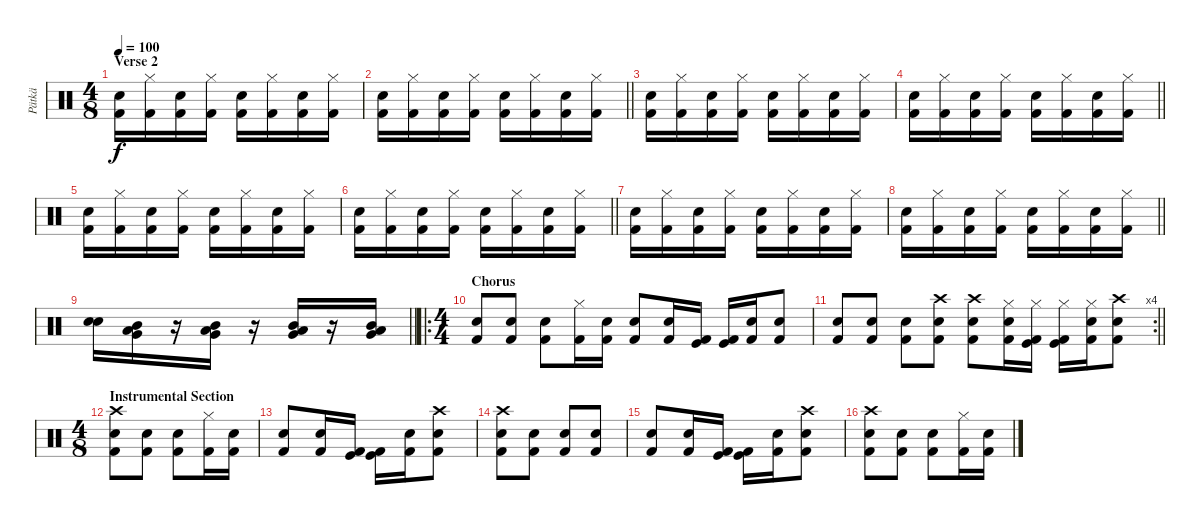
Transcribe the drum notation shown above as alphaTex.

\track ("Pätkä" "Pätkä") {instrument percussion}
\staff {score}
\articulation defaults
\ts (4 8)
\section ("" "Verse 2")
\tempo 100
\clef neutral
\ks c
("Snare (hit) 2" "Kick (hit) 2").16{dy f} ("Hi-Hat (closed)" "Kick (hit) 2").16 ("Snare (hit) 2" "Kick (hit) 2").16 ("Hi-Hat (closed)" "Kick (hit) 2").16 ("Snare (hit) 2" "Kick (hit) 2").16 ("Hi-Hat (closed)" "Kick (hit) 2").16 ("Snare (hit) 2" "Kick (hit) 2").16 ("Hi-Hat (closed)" "Kick (hit) 2").16 |
\barLineRight lightlight
("Snare (hit) 2" "Kick (hit) 2").16 ("Hi-Hat (closed)" "Kick (hit) 2").16 ("Snare (hit) 2" "Kick (hit) 2").16 ("Hi-Hat (closed)" "Kick (hit) 2").16 ("Snare (hit) 2" "Kick (hit) 2").16 ("Hi-Hat (closed)" "Kick (hit) 2").16 ("Snare (hit) 2" "Kick (hit) 2").16 ("Hi-Hat (closed)" "Kick (hit) 2").16 |
("Snare (hit) 2" "Kick (hit) 2").16 ("Hi-Hat (closed)" "Kick (hit) 2").16 ("Snare (hit) 2" "Kick (hit) 2").16 ("Hi-Hat (closed)" "Kick (hit) 2").16 ("Snare (hit) 2" "Kick (hit) 2").16 ("Hi-Hat (closed)" "Kick (hit) 2").16 ("Snare (hit) 2" "Kick (hit) 2").16 ("Hi-Hat (closed)" "Kick (hit) 2").16 |
\barLineRight lightlight
("Snare (hit) 2" "Kick (hit) 2").16 ("Hi-Hat (closed)" "Kick (hit) 2").16 ("Snare (hit) 2" "Kick (hit) 2").16 ("Hi-Hat (closed)" "Kick (hit) 2").16 ("Snare (hit) 2" "Kick (hit) 2").16 ("Hi-Hat (closed)" "Kick (hit) 2").16 ("Snare (hit) 2" "Kick (hit) 2").16 ("Hi-Hat (closed)" "Kick (hit) 2").16 |
("Snare (hit) 2" "Kick (hit) 2").16 ("Hi-Hat (closed)" "Kick (hit) 2").16 ("Snare (hit) 2" "Kick (hit) 2").16 ("Hi-Hat (closed)" "Kick (hit) 2").16 ("Snare (hit) 2" "Kick (hit) 2").16 ("Hi-Hat (closed)" "Kick (hit) 2").16 ("Snare (hit) 2" "Kick (hit) 2").16 ("Hi-Hat (closed)" "Kick (hit) 2").16 |
\barLineRight lightlight
("Snare (hit) 2" "Kick (hit) 2").16 ("Hi-Hat (closed)" "Kick (hit) 2").16 ("Snare (hit) 2" "Kick (hit) 2").16 ("Hi-Hat (closed)" "Kick (hit) 2").16 ("Snare (hit) 2" "Kick (hit) 2").16 ("Hi-Hat (closed)" "Kick (hit) 2").16 ("Snare (hit) 2" "Kick (hit) 2").16 ("Hi-Hat (closed)" "Kick (hit) 2").16 |
("Snare (hit) 2" "Kick (hit) 2").16 ("Hi-Hat (closed)" "Kick (hit) 2").16 ("Snare (hit) 2" "Kick (hit) 2").16 ("Hi-Hat (closed)" "Kick (hit) 2").16 ("Snare (hit) 2" "Kick (hit) 2").16 ("Hi-Hat (closed)" "Kick (hit) 2").16 ("Snare (hit) 2" "Kick (hit) 2").16 ("Hi-Hat (closed)" "Kick (hit) 2").16 |
\barLineRight lightlight
("Snare (hit) 2" "Kick (hit) 2").16 ("Hi-Hat (closed)" "Kick (hit) 2").16 ("Snare (hit) 2" "Kick (hit) 2").16 ("Hi-Hat (closed)" "Kick (hit) 2").16 ("Snare (hit) 2" "Kick (hit) 2").16 ("Hi-Hat (closed)" "Kick (hit) 2").16 ("Snare (hit) 2" "Kick (hit) 2").16 ("Hi-Hat (closed)" "Kick (hit) 2").16 |
\barLineRight lightlight
("Snare (hit) 2" "Electric Snare (hit)").16 ("Mid Tom (hit)" "Very Low Tom (hit)" "Low Tom (hit)").16 r.16 ("Mid Tom (hit)" "Very Low Tom (hit)" "Low Tom (hit)").16 r.16 ("Mid Tom (hit)" "Very Low Tom (hit)" "Low Tom (hit)").16 r.16 ("Mid Tom (hit)" "Very Low Tom (hit)" "Low Tom (hit)").16 |
\ro
\ts (4 4)
\section ("" "Chorus")
("Electric Snare (hit)" "Kick (hit) 2").8 ("Snare (hit) 2" "Kick (hit) 2").8 ("Electric Snare (hit)" "Kick (hit) 2").8 ("Hi-Hat (closed)" "Kick (hit) 2").16 ("Snare (hit) 2" "Kick (hit) 2").16 ("Snare (hit) 2" "Kick (hit) 2").8 ("Snare (hit) 2" "Kick (hit) 2").16 ("Kick (hit)" "Kick (hit) 2").16 ("Kick (hit)" "Kick (hit) 2").16 ("Snare (hit) 2" "Kick (hit) 2").16 ("Electric Snare (hit)" "Kick (hit) 2").8 |
\rc 4
\barLineRight lightlight
("Electric Snare (hit)" "Kick (hit) 2").8 ("Snare (hit) 2" "Kick (hit) 2").8 ("Electric Snare (hit)" "Kick (hit) 2").8 ("Crash high (hit)" "Snare (hit) 2" "Kick (hit) 2").8 ("Crash high (hit)" "Electric Snare (hit)" "Kick (hit) 2").8 ("Hi-Hat (closed)" "Snare (hit) 2" "Kick (hit) 2").16 ("Hi-Hat (closed)" "Kick (hit)" "Kick (hit) 2").16 ("Hi-Hat (closed)" "Kick (hit)" "Kick (hit) 2").16 ("Hi-Hat (closed)" "Snare (hit) 2" "Kick (hit) 2").16 ("Crash high (hit)" "Electric Snare (hit)" "Kick (hit) 2").8 |
\ts (4 8)
\section ("" "Instrumental Section")
("Crash high (hit)" "Electric Snare (hit)" "Kick (hit) 2").8 ("Snare (hit) 2" "Kick (hit) 2").8 ("Electric Snare (hit)" "Kick (hit) 2").8 ("Hi-Hat (closed)" "Kick (hit) 2").16 ("Snare (hit) 2" "Kick (hit) 2").16 |
("Snare (hit) 2" "Kick (hit) 2").8 ("Snare (hit) 2" "Kick (hit) 2").16 ("Kick (hit)" "Kick (hit) 2").16 ("Kick (hit)" "Kick (hit) 2").16 ("Snare (hit) 2" "Kick (hit) 2").16 ("Crash high (hit)" "Electric Snare (hit)" "Kick (hit) 2").8 |
("Crash high (hit)" "Electric Snare (hit)" "Kick (hit) 2").8 ("Snare (hit) 2" "Kick (hit) 2").8 ("Electric Snare (hit)" "Kick (hit) 2").8 ("Snare (hit) 2" "Kick (hit) 2").8 |
("Electric Snare (hit)" "Kick (hit) 2").8 ("Snare (hit) 2" "Kick (hit) 2").16 ("Kick (hit)" "Kick (hit) 2").16 ("Kick (hit)" "Kick (hit) 2").16 ("Snare (hit) 2" "Kick (hit) 2").16 ("Crash high (hit)" "Electric Snare (hit)" "Kick (hit) 2").8 |
("Crash high (hit)" "Electric Snare (hit)" "Kick (hit) 2").8 ("Snare (hit) 2" "Kick (hit) 2").8 ("Electric Snare (hit)" "Kick (hit) 2").8 ("Hi-Hat (closed)" "Kick (hit) 2").16 ("Snare (hit) 2" "Kick (hit) 2").16
